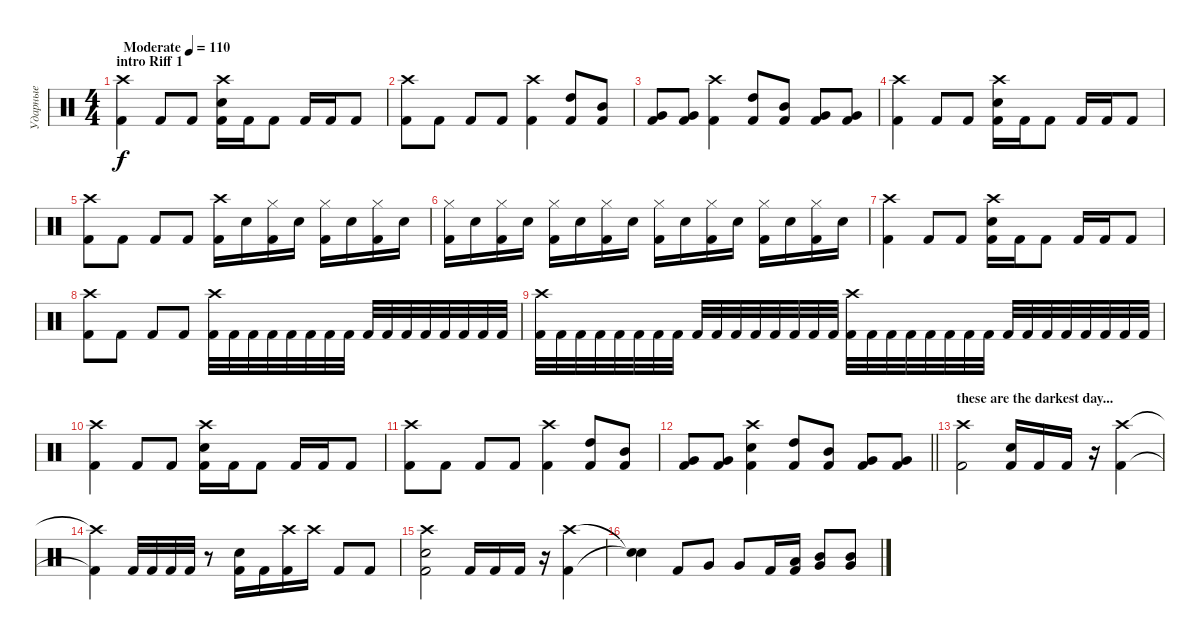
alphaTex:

\track ("Ударные" "Ударные") {instrument percussion}
\staff {score}
\articulation defaults
\ts (4 4)
\section ("" "intro Riff 1")
\tempo (110 "Moderate")
\clef neutral
\ks c
("Crash high (hit)" "Kick (hit) 2").4{dy f} "Kick (hit) 2".8 "Kick (hit) 2".8 ("Crash high (hit)" "Electric Snare (hit)" "Kick (hit) 2").16 "Kick (hit) 2".16 "Kick (hit) 2".8 "Kick (hit) 2".16 "Kick (hit) 2".16 "Kick (hit) 2".8 |
("Crash high (hit)" "Kick (hit) 2").8 "Kick (hit) 2".8 "Kick (hit) 2".8 "Kick (hit) 2".8 ("Crash high (hit)" "Kick (hit) 2").4 ("High Tom (hit)" "Kick (hit) 2").8 ("Mid Tom (hit)" "Kick (hit) 2").8 |
("Very Low Tom (hit)" "Kick (hit) 2").8 ("Very Low Tom (hit)" "Kick (hit) 2").8 ("Crash high (hit)" "Kick (hit) 2").4 ("High Tom (hit)" "Kick (hit) 2").8 ("Mid Tom (hit)" "Kick (hit) 2").8 ("Very Low Tom (hit)" "Kick (hit) 2").8 ("Very Low Tom (hit)" "Kick (hit) 2").8 |
("Crash high (hit)" "Kick (hit) 2").4 "Kick (hit) 2".8 "Kick (hit) 2".8 ("Crash high (hit)" "Electric Snare (hit)" "Kick (hit) 2").16 "Kick (hit) 2".16 "Kick (hit) 2".8 "Kick (hit) 2".16 "Kick (hit) 2".16 "Kick (hit) 2".8 |
("Crash high (hit)" "Kick (hit) 2").8 "Kick (hit) 2".8 "Kick (hit) 2".8 "Kick (hit) 2".8 ("Crash high (hit)" "Kick (hit) 2").16 "Electric Snare (hit)".16 ("Hi-Hat (closed)" "Kick (hit) 2").16 "Electric Snare (hit)".16 ("Hi-Hat (closed)" "Kick (hit) 2").16 "Electric Snare (hit)".16 ("Hi-Hat (closed)" "Kick (hit) 2").16 "Electric Snare (hit)".16 |
("Hi-Hat (closed)" "Kick (hit) 2").16 "Electric Snare (hit)".16 ("Hi-Hat (closed)" "Kick (hit) 2").16 "Electric Snare (hit)".16 ("Hi-Hat (closed)" "Kick (hit) 2").16 "Electric Snare (hit)".16 ("Hi-Hat (closed)" "Kick (hit) 2").16 "Electric Snare (hit)".16 ("Hi-Hat (closed)" "Kick (hit) 2").16 "Electric Snare (hit)".16 ("Hi-Hat (closed)" "Kick (hit) 2").16 "Electric Snare (hit)".16 ("Hi-Hat (closed)" "Kick (hit) 2").16 "Electric Snare (hit)".16 ("Hi-Hat (closed)" "Kick (hit) 2").16 "Electric Snare (hit)".16 |
("Crash high (hit)" "Kick (hit) 2").4 "Kick (hit) 2".8 "Kick (hit) 2".8 ("Crash high (hit)" "Electric Snare (hit)" "Kick (hit) 2").16 "Kick (hit) 2".16 "Kick (hit) 2".8 "Kick (hit) 2".16 "Kick (hit) 2".16 "Kick (hit) 2".8 |
("Crash high (hit)" "Kick (hit) 2").8 "Kick (hit) 2".8 "Kick (hit) 2".8 "Kick (hit) 2".8 ("Crash high (hit)" "Kick (hit) 2").32 "Kick (hit) 2".32 "Kick (hit) 2".32 "Kick (hit) 2".32 "Kick (hit) 2".32 "Kick (hit) 2".32 "Kick (hit) 2".32 "Kick (hit) 2".32 "Kick (hit) 2".32 "Kick (hit) 2".32 "Kick (hit) 2".32 "Kick (hit) 2".32 "Kick (hit) 2".32 "Kick (hit) 2".32 "Kick (hit) 2".32 "Kick (hit) 2".32 |
("Crash high (hit)" "Kick (hit) 2").32 "Kick (hit) 2".32 "Kick (hit) 2".32 "Kick (hit) 2".32 "Kick (hit) 2".32 "Kick (hit) 2".32 "Kick (hit) 2".32 "Kick (hit) 2".32 "Kick (hit) 2".32 "Kick (hit) 2".32 "Kick (hit) 2".32 "Kick (hit) 2".32 "Kick (hit) 2".32 "Kick (hit) 2".32 "Kick (hit) 2".32 "Kick (hit) 2".32 ("Crash high (hit)" "Kick (hit) 2").32 "Kick (hit) 2".32 "Kick (hit) 2".32 "Kick (hit) 2".32 "Kick (hit) 2".32 "Kick (hit) 2".32 "Kick (hit) 2".32 "Kick (hit) 2".32 "Kick (hit) 2".32 "Kick (hit) 2".32 "Kick (hit) 2".32 "Kick (hit) 2".32 "Kick (hit) 2".32 "Kick (hit) 2".32 "Kick (hit) 2".32 "Kick (hit) 2".32 |
("Crash high (hit)" "Kick (hit) 2").4 "Kick (hit) 2".8 "Kick (hit) 2".8 ("Crash high (hit)" "Electric Snare (hit)" "Kick (hit) 2").16 "Kick (hit) 2".16 "Kick (hit) 2".8 "Kick (hit) 2".16 "Kick (hit) 2".16 "Kick (hit) 2".8 |
("Crash high (hit)" "Kick (hit) 2").8 "Kick (hit) 2".8 "Kick (hit) 2".8 "Kick (hit) 2".8 ("Crash high (hit)" "Kick (hit) 2").4 ("High Tom (hit)" "Kick (hit) 2").8 ("Mid Tom (hit)" "Kick (hit) 2").8 |
\barLineRight lightlight
("Very Low Tom (hit)" "Kick (hit) 2").8 ("Very Low Tom (hit)" "Kick (hit) 2").8 ("Crash high (hit)" "Electric Snare (hit)" "Kick (hit) 2").4 ("High Tom (hit)" "Kick (hit) 2").8 ("Mid Tom (hit)" "Kick (hit) 2").8 ("Very Low Tom (hit)" "Kick (hit) 2").8 ("Very Low Tom (hit)" "Kick (hit) 2").8 |
\section ("" "these are the darkest day...")
("Crash high (hit)" "Kick (hit) 2").2 ("Electric Snare (hit)" "Kick (hit) 2").16 "Kick (hit) 2".16 "Kick (hit) 2".16 r.16 ("Crash high (hit)" "Kick (hit) 2").4 |
("Crash high (hit)"{t} "Kick (hit) 2"{t}).4 "Kick (hit) 2".32 "Kick (hit) 2".32 "Kick (hit) 2".32 "Kick (hit) 2".32 r.8 ("Electric Snare (hit)" "Kick (hit) 2").16 "Kick (hit) 2".16 ("Crash high (hit)" "Kick (hit) 2").16 "Crash high (hit)".16 "Kick (hit) 2".8 "Kick (hit) 2".8 |
("Crash high (hit)" "Electric Snare (hit)" "Kick (hit) 2").2 "Kick (hit) 2".16 "Kick (hit) 2".16 "Kick (hit) 2".16 r.16 ("Crash high (hit)" "Kick (hit) 2").4 |
("Snare (hit)"{t} "Snare (hit)"{t}).4 "Kick (hit) 2".8 "Very Low Tom (hit)".8 "Very Low Tom (hit)".8 "Kick (hit) 2".16 ("Low Tom (hit)" "Kick (hit) 2").16 ("Mid Tom (hit)" "Very Low Tom (hit)").8 ("Mid Tom (hit)" "Very Low Tom (hit)").8
